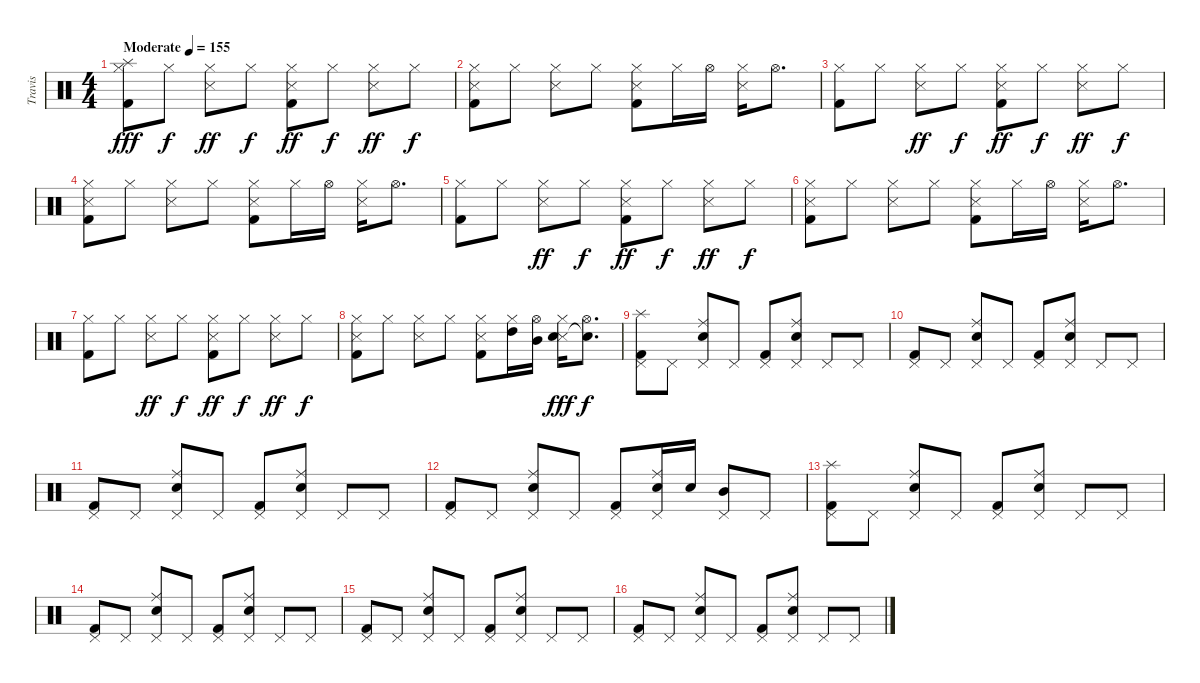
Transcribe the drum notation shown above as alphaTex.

\track ("Travis" "Travis") {instrument percussion}
\staff {score}
\articulation defaults
\ts (4 4)
\tempo (155 "Moderate")
\clef neutral
\ks c
("Splash (hit)" "Hi-Hat (closed)" "Kick (hit) 2").8{dy fff} "Hi-Hat (closed)".8{dy f} ("Hi-Hat (closed)" "Snare (side stick) 3").8{dy ff} "Hi-Hat (closed)".8{dy f} ("Hi-Hat (closed)" "Snare (side stick) 3" "Kick (hit) 2").8{dy ff} "Hi-Hat (closed)".8{dy f} ("Hi-Hat (closed)" "Snare (side stick) 3").8{dy ff} "Hi-Hat (closed)".8{dy f} |
("Hi-Hat (closed)" "Snare (side stick) 3" "Kick (hit) 2").8 "Hi-Hat (closed)".8 ("Hi-Hat (closed)" "Snare (side stick) 3").8 "Hi-Hat (closed)".8 ("Hi-Hat (closed)" "Snare (side stick) 3" "Kick (hit) 2").8 "Hi-Hat (closed)".16 "Hi-Hat (open)".16 ("Hi-Hat (closed)" "Snare (side stick) 3").16 "Hi-Hat (open)".8{d} |
("Hi-Hat (closed)" "Kick (hit) 2").8 "Hi-Hat (closed)".8 ("Hi-Hat (closed)" "Snare (side stick) 3").8{dy ff} "Hi-Hat (closed)".8{dy f} ("Hi-Hat (closed)" "Snare (side stick) 3" "Kick (hit) 2").8{dy ff} "Hi-Hat (closed)".8{dy f} ("Hi-Hat (closed)" "Snare (side stick) 3").8{dy ff} "Hi-Hat (closed)".8{dy f} |
("Hi-Hat (closed)" "Snare (side stick) 3" "Kick (hit) 2").8 "Hi-Hat (closed)".8 ("Hi-Hat (closed)" "Snare (side stick) 3").8 "Hi-Hat (closed)".8 ("Hi-Hat (closed)" "Snare (side stick) 3" "Kick (hit) 2").8 "Hi-Hat (closed)".16 "Hi-Hat (open)".16 ("Hi-Hat (closed)" "Snare (side stick) 3").16 "Hi-Hat (open)".8{d} |
("Hi-Hat (closed)" "Kick (hit) 2").8 "Hi-Hat (closed)".8 ("Hi-Hat (closed)" "Snare (side stick) 3").8{dy ff} "Hi-Hat (closed)".8{dy f} ("Hi-Hat (closed)" "Snare (side stick) 3" "Kick (hit) 2").8{dy ff} "Hi-Hat (closed)".8{dy f} ("Hi-Hat (closed)" "Snare (side stick) 3").8{dy ff} "Hi-Hat (closed)".8{dy f} |
("Hi-Hat (closed)" "Snare (side stick) 3" "Kick (hit) 2").8 "Hi-Hat (closed)".8 ("Hi-Hat (closed)" "Snare (side stick) 3").8 "Hi-Hat (closed)".8 ("Hi-Hat (closed)" "Snare (side stick) 3" "Kick (hit) 2").8 "Hi-Hat (closed)".16 "Hi-Hat (open)".16 ("Hi-Hat (closed)" "Snare (side stick) 3").16 "Hi-Hat (open)".8{d} |
("Hi-Hat (closed)" "Kick (hit) 2").8 "Hi-Hat (closed)".8 ("Hi-Hat (closed)" "Snare (side stick) 3").8{dy ff} "Hi-Hat (closed)".8{dy f} ("Hi-Hat (closed)" "Snare (side stick) 3" "Kick (hit) 2").8{dy ff} "Hi-Hat (closed)".8{dy f} ("Hi-Hat (closed)" "Snare (side stick) 3").8{dy ff} "Hi-Hat (closed)".8{dy f} |
("Snare (side stick) 3" "Hi-Hat (closed)" "Kick (hit) 2").8 "Hi-Hat (closed)".8 ("Snare (side stick) 3" "Hi-Hat (closed)").8 "Hi-Hat (closed)".8 ("Snare (side stick) 3" "Hi-Hat (closed)" "Kick (hit) 2").8 ("Hi-Hat (closed)" "High Tom (hit)").16 ("Hi-Hat (open)" "Mid Tom (hit)").16 ("Snare (side stick) 3" "Hi-Hat (closed)" "Electric Snare (hit)").16{dy fff} ("Snare (hit)"{t} "Hi-Hat (open)").8{d dy f} |
("Splash (hit)" "Pedal Hi-Hat (hit)" "Kick (hit) 2").8 "Pedal Hi-Hat (hit)".8 ("Electric Snare (hit)" "Pedal Hi-Hat (hit)" "Ride (middle)").8 "Pedal Hi-Hat (hit)".8 ("Pedal Hi-Hat (hit)" "Kick (hit) 2").8 ("Electric Snare (hit)" "Pedal Hi-Hat (hit)" "Ride (middle)").8 "Pedal Hi-Hat (hit)".8 "Pedal Hi-Hat (hit)".8 |
("Pedal Hi-Hat (hit)" "Kick (hit) 2").8 "Pedal Hi-Hat (hit)".8 ("Electric Snare (hit)" "Pedal Hi-Hat (hit)" "Ride (middle)").8 "Pedal Hi-Hat (hit)".8 ("Pedal Hi-Hat (hit)" "Kick (hit) 2").8 ("Electric Snare (hit)" "Pedal Hi-Hat (hit)" "Ride (middle)").8 "Pedal Hi-Hat (hit)".8 "Pedal Hi-Hat (hit)".8 |
("Pedal Hi-Hat (hit)" "Kick (hit) 2").8 "Pedal Hi-Hat (hit)".8 ("Electric Snare (hit)" "Pedal Hi-Hat (hit)" "Ride (middle)").8 "Pedal Hi-Hat (hit)".8 ("Pedal Hi-Hat (hit)" "Kick (hit) 2").8 ("Electric Snare (hit)" "Pedal Hi-Hat (hit)" "Ride (middle)").8 "Pedal Hi-Hat (hit)".8 "Pedal Hi-Hat (hit)".8 |
("Pedal Hi-Hat (hit)" "Kick (hit) 2").8 "Pedal Hi-Hat (hit)".8 ("Electric Snare (hit)" "Pedal Hi-Hat (hit)" "Ride (middle)").8 "Pedal Hi-Hat (hit)".8 ("Pedal Hi-Hat (hit)" "Kick (hit) 2").8 ("Electric Snare (hit)" "Pedal Hi-Hat (hit)" "Ride (middle)").16 "Electric Snare (hit)".16 ("Mid Tom (hit)" "Pedal Hi-Hat (hit)").8 "Pedal Hi-Hat (hit)".8 |
("Splash (hit)" "Pedal Hi-Hat (hit)" "Kick (hit) 2").8 "Pedal Hi-Hat (hit)".8 ("Electric Snare (hit)" "Pedal Hi-Hat (hit)" "Ride (middle)").8 "Pedal Hi-Hat (hit)".8 ("Pedal Hi-Hat (hit)" "Kick (hit) 2").8 ("Electric Snare (hit)" "Pedal Hi-Hat (hit)" "Ride (middle)").8 "Pedal Hi-Hat (hit)".8 "Pedal Hi-Hat (hit)".8 |
("Pedal Hi-Hat (hit)" "Kick (hit) 2").8 "Pedal Hi-Hat (hit)".8 ("Electric Snare (hit)" "Pedal Hi-Hat (hit)" "Ride (middle)").8 "Pedal Hi-Hat (hit)".8 ("Pedal Hi-Hat (hit)" "Kick (hit) 2").8 ("Electric Snare (hit)" "Pedal Hi-Hat (hit)" "Ride (middle)").8 "Pedal Hi-Hat (hit)".8 "Pedal Hi-Hat (hit)".8 |
("Pedal Hi-Hat (hit)" "Kick (hit) 2").8 "Pedal Hi-Hat (hit)".8 ("Electric Snare (hit)" "Pedal Hi-Hat (hit)" "Ride (middle)").8 "Pedal Hi-Hat (hit)".8 ("Pedal Hi-Hat (hit)" "Kick (hit) 2").8 ("Electric Snare (hit)" "Pedal Hi-Hat (hit)" "Ride (middle)").8 "Pedal Hi-Hat (hit)".8 "Pedal Hi-Hat (hit)".8 |
("Pedal Hi-Hat (hit)" "Kick (hit) 2").8 "Pedal Hi-Hat (hit)".8 ("Electric Snare (hit)" "Pedal Hi-Hat (hit)" "Ride (middle)").8 "Pedal Hi-Hat (hit)".8 ("Pedal Hi-Hat (hit)" "Kick (hit) 2").8 ("Electric Snare (hit)" "Pedal Hi-Hat (hit)" "Ride (middle)").8 "Pedal Hi-Hat (hit)".8 "Pedal Hi-Hat (hit)".8
